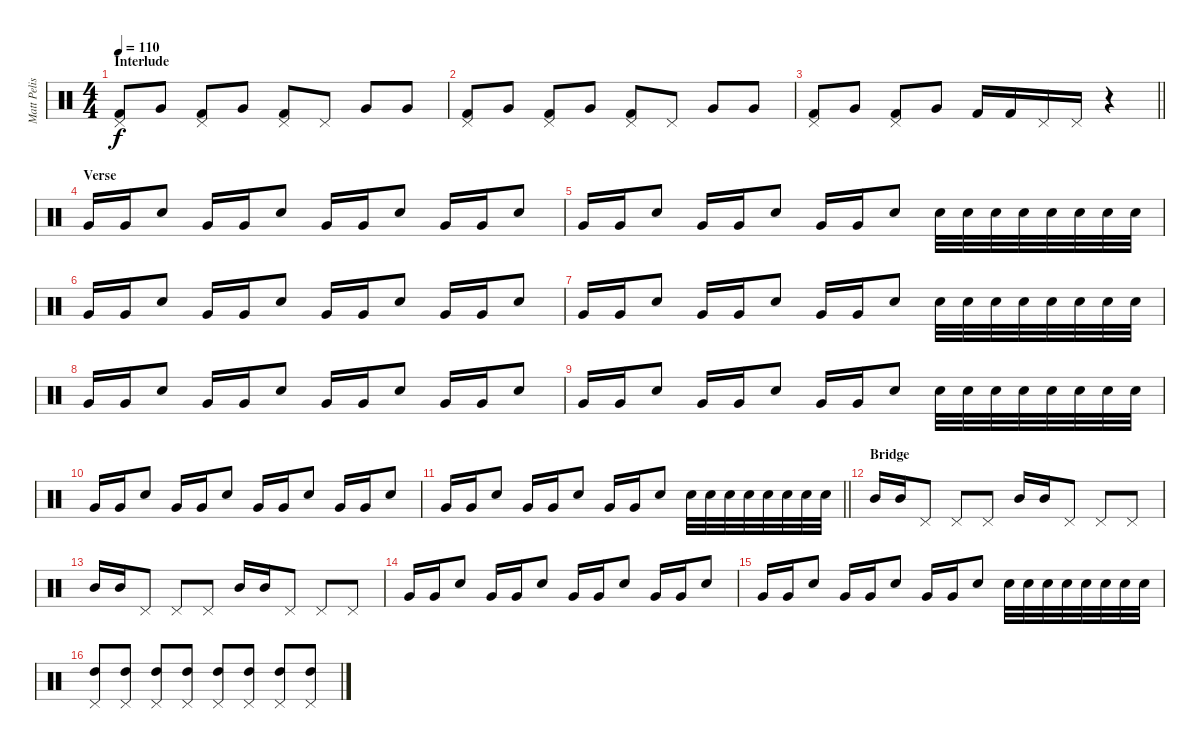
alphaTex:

\track ("Matt Pelissier (Bob Bryar)" "Matt Pelis") {instrument percussion}
\staff {score}
\articulation defaults
\ts (4 4)
\section ("" "Interlude")
\tempo 110
\clef neutral
\ks c
("Pedal Hi-Hat (hit)" "Kick (hit) 2").8{dy f} "Very Low Tom (hit)".8 ("Pedal Hi-Hat (hit)" "Kick (hit) 2").8 "Very Low Tom (hit)".8 ("Pedal Hi-Hat (hit)" "Kick (hit) 2").8 "Pedal Hi-Hat (hit)".8 "Very Low Tom (hit)".8 "Very Low Tom (hit)".8 |
("Pedal Hi-Hat (hit)" "Kick (hit) 2").8 "Very Low Tom (hit)".8 ("Pedal Hi-Hat (hit)" "Kick (hit) 2").8 "Very Low Tom (hit)".8 ("Pedal Hi-Hat (hit)" "Kick (hit) 2").8 "Pedal Hi-Hat (hit)".8 "Very Low Tom (hit)".8 "Very Low Tom (hit)".8 |
\barLineRight lightlight
("Pedal Hi-Hat (hit)" "Kick (hit) 2").8 "Very Low Tom (hit)".8 ("Pedal Hi-Hat (hit)" "Kick (hit) 2").8 "Very Low Tom (hit)".8 "Kick (hit) 2".16 "Kick (hit) 2".16 "Pedal Hi-Hat (hit)".16 "Pedal Hi-Hat (hit)".16 r.4 |
\section ("" "Verse")
"Very Low Tom (hit)".16 "Very Low Tom (hit)".16 "Electric Snare (hit)".8 "Very Low Tom (hit)".16 "Very Low Tom (hit)".16 "Electric Snare (hit)".8 "Very Low Tom (hit)".16 "Very Low Tom (hit)".16 "Electric Snare (hit)".8 "Very Low Tom (hit)".16 "Very Low Tom (hit)".16 "Electric Snare (hit)".8 |
"Very Low Tom (hit)".16 "Very Low Tom (hit)".16 "Electric Snare (hit)".8 "Very Low Tom (hit)".16 "Very Low Tom (hit)".16 "Electric Snare (hit)".8 "Very Low Tom (hit)".16 "Very Low Tom (hit)".16 "Electric Snare (hit)".8 "Electric Snare (hit)".32 "Electric Snare (hit)".32 "Electric Snare (hit)".32 "Electric Snare (hit)".32 "Electric Snare (hit)".32 "Electric Snare (hit)".32 "Electric Snare (hit)".32 "Electric Snare (hit)".32 |
"Very Low Tom (hit)".16 "Very Low Tom (hit)".16 "Electric Snare (hit)".8 "Very Low Tom (hit)".16 "Very Low Tom (hit)".16 "Electric Snare (hit)".8 "Very Low Tom (hit)".16 "Very Low Tom (hit)".16 "Electric Snare (hit)".8 "Very Low Tom (hit)".16 "Very Low Tom (hit)".16 "Electric Snare (hit)".8 |
"Very Low Tom (hit)".16 "Very Low Tom (hit)".16 "Electric Snare (hit)".8 "Very Low Tom (hit)".16 "Very Low Tom (hit)".16 "Electric Snare (hit)".8 "Very Low Tom (hit)".16 "Very Low Tom (hit)".16 "Electric Snare (hit)".8 "Electric Snare (hit)".32 "Electric Snare (hit)".32 "Electric Snare (hit)".32 "Electric Snare (hit)".32 "Electric Snare (hit)".32 "Electric Snare (hit)".32 "Electric Snare (hit)".32 "Electric Snare (hit)".32 |
"Very Low Tom (hit)".16 "Very Low Tom (hit)".16 "Electric Snare (hit)".8 "Very Low Tom (hit)".16 "Very Low Tom (hit)".16 "Electric Snare (hit)".8 "Very Low Tom (hit)".16 "Very Low Tom (hit)".16 "Electric Snare (hit)".8 "Very Low Tom (hit)".16 "Very Low Tom (hit)".16 "Electric Snare (hit)".8 |
"Very Low Tom (hit)".16 "Very Low Tom (hit)".16 "Electric Snare (hit)".8 "Very Low Tom (hit)".16 "Very Low Tom (hit)".16 "Electric Snare (hit)".8 "Very Low Tom (hit)".16 "Very Low Tom (hit)".16 "Electric Snare (hit)".8 "Electric Snare (hit)".32 "Electric Snare (hit)".32 "Electric Snare (hit)".32 "Electric Snare (hit)".32 "Electric Snare (hit)".32 "Electric Snare (hit)".32 "Electric Snare (hit)".32 "Electric Snare (hit)".32 |
"Very Low Tom (hit)".16 "Very Low Tom (hit)".16 "Electric Snare (hit)".8 "Very Low Tom (hit)".16 "Very Low Tom (hit)".16 "Electric Snare (hit)".8 "Very Low Tom (hit)".16 "Very Low Tom (hit)".16 "Electric Snare (hit)".8 "Very Low Tom (hit)".16 "Very Low Tom (hit)".16 "Electric Snare (hit)".8 |
\barLineRight lightlight "Very Low Tom (hit)".16 "Very Low Tom (hit)".16 "Electric Snare (hit)".8 "Very Low Tom (hit)".16 "Very Low Tom (hit)".16 "Electric Snare (hit)".8 "Very Low Tom (hit)".16 "Very Low Tom (hit)".16 "Electric Snare (hit)".8 "Electric Snare (hit)".32 "Electric Snare (hit)".32 "Electric Snare (hit)".32 "Electric Snare (hit)".32 "Electric Snare (hit)".32 "Electric Snare (hit)".32 "Electric Snare (hit)".32 "Electric Snare (hit)".32
|
\section ("" "Bridge")
"Mid Tom (hit)".16 "Mid Tom (hit)".16 "Pedal Hi-Hat (hit)".8 "Pedal Hi-Hat (hit)".8 "Pedal Hi-Hat (hit)".8 "Mid Tom (hit)".16 "Mid Tom (hit)".16 "Pedal Hi-Hat (hit)".8 "Pedal Hi-Hat (hit)".8 "Pedal Hi-Hat (hit)".8 |
"Mid Tom (hit)".16 "Mid Tom (hit)".16 "Pedal Hi-Hat (hit)".8 "Pedal Hi-Hat (hit)".8 "Pedal Hi-Hat (hit)".8 "Mid Tom (hit)".16 "Mid Tom (hit)".16 "Pedal Hi-Hat (hit)".8 "Pedal Hi-Hat (hit)".8 "Pedal Hi-Hat (hit)".8 |
"Very Low Tom (hit)".16 "Very Low Tom (hit)".16 "Electric Snare (hit)".8 "Very Low Tom (hit)".16 "Very Low Tom (hit)".16 "Electric Snare (hit)".8 "Very Low Tom (hit)".16 "Very Low Tom (hit)".16 "Electric Snare (hit)".8 "Very Low Tom (hit)".16 "Very Low Tom (hit)".16 "Electric Snare (hit)".8 |
"Very Low Tom (hit)".16 "Very Low Tom (hit)".16 "Electric Snare (hit)".8 "Very Low Tom (hit)".16 "Very Low Tom (hit)".16 "Electric Snare (hit)".8 "Very Low Tom (hit)".16 "Very Low Tom (hit)".16 "Electric Snare (hit)".8 "Electric Snare (hit)".32 "Electric Snare (hit)".32 "Electric Snare (hit)".32 "Electric Snare (hit)".32 "Electric Snare (hit)".32 "Electric Snare (hit)".32 "Electric Snare (hit)".32 "Electric Snare (hit)".32 |
("Pedal Hi-Hat (hit)" "High Tom (hit)").8 ("Pedal Hi-Hat (hit)" "High Tom (hit)").8 ("Pedal Hi-Hat (hit)" "High Tom (hit)").8 ("Pedal Hi-Hat (hit)" "High Tom (hit)").8 ("Pedal Hi-Hat (hit)" "High Tom (hit)").8 ("Pedal Hi-Hat (hit)" "High Tom (hit)").8 ("Pedal Hi-Hat (hit)" "High Tom (hit)").8 ("Pedal Hi-Hat (hit)" "High Tom (hit)").8
